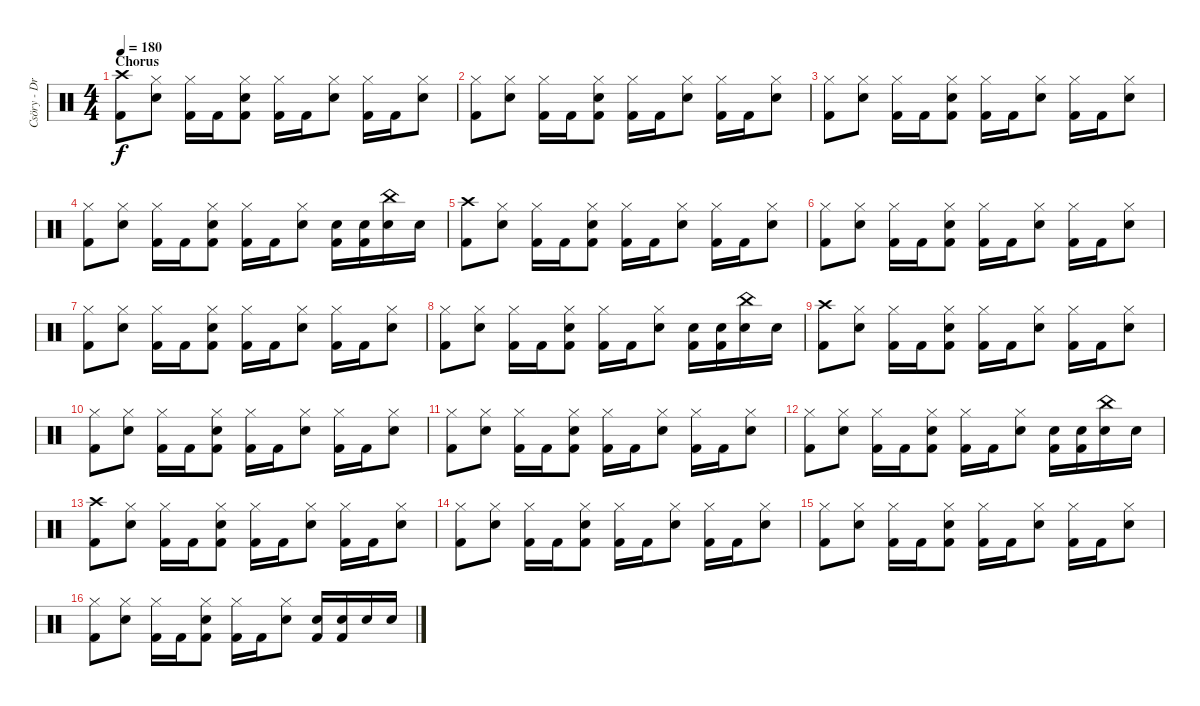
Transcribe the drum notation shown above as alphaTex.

\track ("Csöry - DrumZ" "Csöry - Dr") {instrument percussion}
\staff {score}
\articulation defaults
\ts (4 4)
\section ("" "Chorus")
\tempo 180
\clef neutral
\ks c
("Crash high (hit)" "Kick (hit) 2").8{dy f} ("Hi-Hat (closed)" "Snare (hit) 2").8 ("Hi-Hat (closed)" "Kick (hit) 2").16 "Kick (hit) 2".16 ("Hi-Hat (closed)" "Snare (hit) 2" "Kick (hit) 2").8 ("Hi-Hat (closed)" "Kick (hit) 2").16 "Kick (hit) 2".16 ("Hi-Hat (closed)" "Snare (hit) 2").8 ("Hi-Hat (closed)" "Kick (hit) 2").16 "Kick (hit) 2".16 ("Hi-Hat (closed)" "Snare (hit) 2").8 |
("Hi-Hat (closed)" "Kick (hit) 2").8 ("Hi-Hat (closed)" "Snare (hit) 2").8 ("Hi-Hat (closed)" "Kick (hit) 2").16 "Kick (hit) 2".16 ("Hi-Hat (closed)" "Snare (hit) 2" "Kick (hit) 2").8 ("Hi-Hat (closed)" "Kick (hit) 2").16 "Kick (hit) 2".16 ("Hi-Hat (closed)" "Snare (hit) 2").8 ("Hi-Hat (closed)" "Kick (hit) 2").16 "Kick (hit) 2".16 ("Hi-Hat (closed)" "Snare (hit) 2").8 |
("Hi-Hat (closed)" "Kick (hit) 2").8 ("Hi-Hat (closed)" "Snare (hit) 2").8 ("Hi-Hat (closed)" "Kick (hit) 2").16 "Kick (hit) 2".16 ("Hi-Hat (closed)" "Snare (hit) 2" "Kick (hit) 2").8 ("Hi-Hat (closed)" "Kick (hit) 2").16 "Kick (hit) 2".16 ("Hi-Hat (closed)" "Snare (hit) 2").8 ("Hi-Hat (closed)" "Kick (hit) 2").16 "Kick (hit) 2".16 ("Hi-Hat (closed)" "Snare (hit) 2").8 |
("Hi-Hat (closed)" "Kick (hit) 2").8 ("Hi-Hat (closed)" "Snare (hit) 2").8 ("Hi-Hat (closed)" "Kick (hit) 2").16 "Kick (hit) 2".16 ("Hi-Hat (closed)" "Snare (hit) 2" "Kick (hit) 2").8 ("Hi-Hat (closed)" "Kick (hit) 2").16 "Kick (hit) 2".16 ("Hi-Hat (closed)" "Snare (hit) 2").8 ("Snare (hit) 2" "Kick (hit) 2").16 ("Snare (hit) 2" "Kick (hit) 2").16 ("China (hit)" "Snare (hit) 2").16 "Snare (hit) 2".16 |
("Crash high (hit)" "Kick (hit) 2").8 ("Hi-Hat (closed)" "Snare (hit) 2").8 ("Hi-Hat (closed)" "Kick (hit) 2").16 "Kick (hit) 2".16 ("Hi-Hat (closed)" "Snare (hit) 2" "Kick (hit) 2").8 ("Hi-Hat (closed)" "Kick (hit) 2").16 "Kick (hit) 2".16 ("Hi-Hat (closed)" "Snare (hit) 2").8 ("Hi-Hat (closed)" "Kick (hit) 2").16 "Kick (hit) 2".16 ("Hi-Hat (closed)" "Snare (hit) 2").8 |
("Hi-Hat (closed)" "Kick (hit) 2").8 ("Hi-Hat (closed)" "Snare (hit) 2").8 ("Hi-Hat (closed)" "Kick (hit) 2").16 "Kick (hit) 2".16 ("Hi-Hat (closed)" "Snare (hit) 2" "Kick (hit) 2").8 ("Hi-Hat (closed)" "Kick (hit) 2").16 "Kick (hit) 2".16 ("Hi-Hat (closed)" "Snare (hit) 2").8 ("Hi-Hat (closed)" "Kick (hit) 2").16 "Kick (hit) 2".16 ("Hi-Hat (closed)" "Snare (hit) 2").8 |
("Hi-Hat (closed)" "Kick (hit) 2").8 ("Hi-Hat (closed)" "Snare (hit) 2").8 ("Hi-Hat (closed)" "Kick (hit) 2").16 "Kick (hit) 2".16 ("Hi-Hat (closed)" "Snare (hit) 2" "Kick (hit) 2").8 ("Hi-Hat (closed)" "Kick (hit) 2").16 "Kick (hit) 2".16 ("Hi-Hat (closed)" "Snare (hit) 2").8 ("Hi-Hat (closed)" "Kick (hit) 2").16 "Kick (hit) 2".16 ("Hi-Hat (closed)" "Snare (hit) 2").8 |
("Hi-Hat (closed)" "Kick (hit) 2").8 ("Hi-Hat (closed)" "Snare (hit) 2").8 ("Hi-Hat (closed)" "Kick (hit) 2").16 "Kick (hit) 2".16 ("Hi-Hat (closed)" "Snare (hit) 2" "Kick (hit) 2").8 ("Hi-Hat (closed)" "Kick (hit) 2").16 "Kick (hit) 2".16 ("Hi-Hat (closed)" "Snare (hit) 2").8 ("Snare (hit) 2" "Kick (hit) 2").16 ("Snare (hit) 2" "Kick (hit) 2").16 ("China (hit)" "Snare (hit) 2").16 "Snare (hit) 2".16 |
("Crash high (hit)" "Kick (hit) 2").8 ("Hi-Hat (closed)" "Snare (hit) 2").8 ("Hi-Hat (closed)" "Kick (hit) 2").16 "Kick (hit) 2".16 ("Hi-Hat (closed)" "Snare (hit) 2" "Kick (hit) 2").8 ("Hi-Hat (closed)" "Kick (hit) 2").16 "Kick (hit) 2".16 ("Hi-Hat (closed)" "Snare (hit) 2").8 ("Hi-Hat (closed)" "Kick (hit) 2").16 "Kick (hit) 2".16 ("Hi-Hat (closed)" "Snare (hit) 2").8 |
("Hi-Hat (closed)" "Kick (hit) 2").8 ("Hi-Hat (closed)" "Snare (hit) 2").8 ("Hi-Hat (closed)" "Kick (hit) 2").16 "Kick (hit) 2".16 ("Hi-Hat (closed)" "Snare (hit) 2" "Kick (hit) 2").8 ("Hi-Hat (closed)" "Kick (hit) 2").16 "Kick (hit) 2".16 ("Hi-Hat (closed)" "Snare (hit) 2").8 ("Hi-Hat (closed)" "Kick (hit) 2").16 "Kick (hit) 2".16 ("Hi-Hat (closed)" "Snare (hit) 2").8 |
("Hi-Hat (closed)" "Kick (hit) 2").8 ("Hi-Hat (closed)" "Snare (hit) 2").8 ("Hi-Hat (closed)" "Kick (hit) 2").16 "Kick (hit) 2".16 ("Hi-Hat (closed)" "Snare (hit) 2" "Kick (hit) 2").8 ("Hi-Hat (closed)" "Kick (hit) 2").16 "Kick (hit) 2".16 ("Hi-Hat (closed)" "Snare (hit) 2").8 ("Hi-Hat (closed)" "Kick (hit) 2").16 "Kick (hit) 2".16 ("Hi-Hat (closed)" "Snare (hit) 2").8 |
("Hi-Hat (closed)" "Kick (hit) 2").8 ("Hi-Hat (closed)" "Snare (hit) 2").8 ("Hi-Hat (closed)" "Kick (hit) 2").16 "Kick (hit) 2".16 ("Hi-Hat (closed)" "Snare (hit) 2" "Kick (hit) 2").8 ("Hi-Hat (closed)" "Kick (hit) 2").16 "Kick (hit) 2".16 ("Hi-Hat (closed)" "Snare (hit) 2").8 ("Snare (hit) 2" "Kick (hit) 2").16 ("Snare (hit) 2" "Kick (hit) 2").16 ("China (hit)" "Snare (hit) 2").16 "Snare (hit) 2".16 |
("Crash high (hit)" "Kick (hit) 2").8 ("Hi-Hat (closed)" "Snare (hit) 2").8 ("Hi-Hat (closed)" "Kick (hit) 2").16 "Kick (hit) 2".16 ("Hi-Hat (closed)" "Snare (hit) 2" "Kick (hit) 2").8 ("Hi-Hat (closed)" "Kick (hit) 2").16 "Kick (hit) 2".16 ("Hi-Hat (closed)" "Snare (hit) 2").8 ("Hi-Hat (closed)" "Kick (hit) 2").16 "Kick (hit) 2".16 ("Hi-Hat (closed)" "Snare (hit) 2").8 |
("Hi-Hat (closed)" "Kick (hit) 2").8 ("Hi-Hat (closed)" "Snare (hit) 2").8 ("Hi-Hat (closed)" "Kick (hit) 2").16 "Kick (hit) 2".16 ("Hi-Hat (closed)" "Snare (hit) 2" "Kick (hit) 2").8 ("Hi-Hat (closed)" "Kick (hit) 2").16 "Kick (hit) 2".16 ("Hi-Hat (closed)" "Snare (hit) 2").8 ("Hi-Hat (closed)" "Kick (hit) 2").16 "Kick (hit) 2".16 ("Hi-Hat (closed)" "Snare (hit) 2").8 |
("Hi-Hat (closed)" "Kick (hit) 2").8 ("Hi-Hat (closed)" "Snare (hit) 2").8 ("Hi-Hat (closed)" "Kick (hit) 2").16 "Kick (hit) 2".16 ("Hi-Hat (closed)" "Snare (hit) 2" "Kick (hit) 2").8 ("Hi-Hat (closed)" "Kick (hit) 2").16 "Kick (hit) 2".16 ("Hi-Hat (closed)" "Snare (hit) 2").8 ("Hi-Hat (closed)" "Kick (hit) 2").16 "Kick (hit) 2".16 ("Hi-Hat (closed)" "Snare (hit) 2").8 |
("Hi-Hat (closed)" "Kick (hit) 2").8 ("Hi-Hat (closed)" "Snare (hit) 2").8 ("Hi-Hat (closed)" "Kick (hit) 2").16 "Kick (hit) 2".16 ("Hi-Hat (closed)" "Snare (hit) 2" "Kick (hit) 2").8 ("Hi-Hat (closed)" "Kick (hit) 2").16 "Kick (hit) 2".16 ("Hi-Hat (closed)" "Snare (hit) 2").8 ("Snare (hit) 2" "Kick (hit) 2").16 ("Snare (hit) 2" "Kick (hit) 2").16 "Snare (hit) 2".16 "Snare (hit) 2".16
